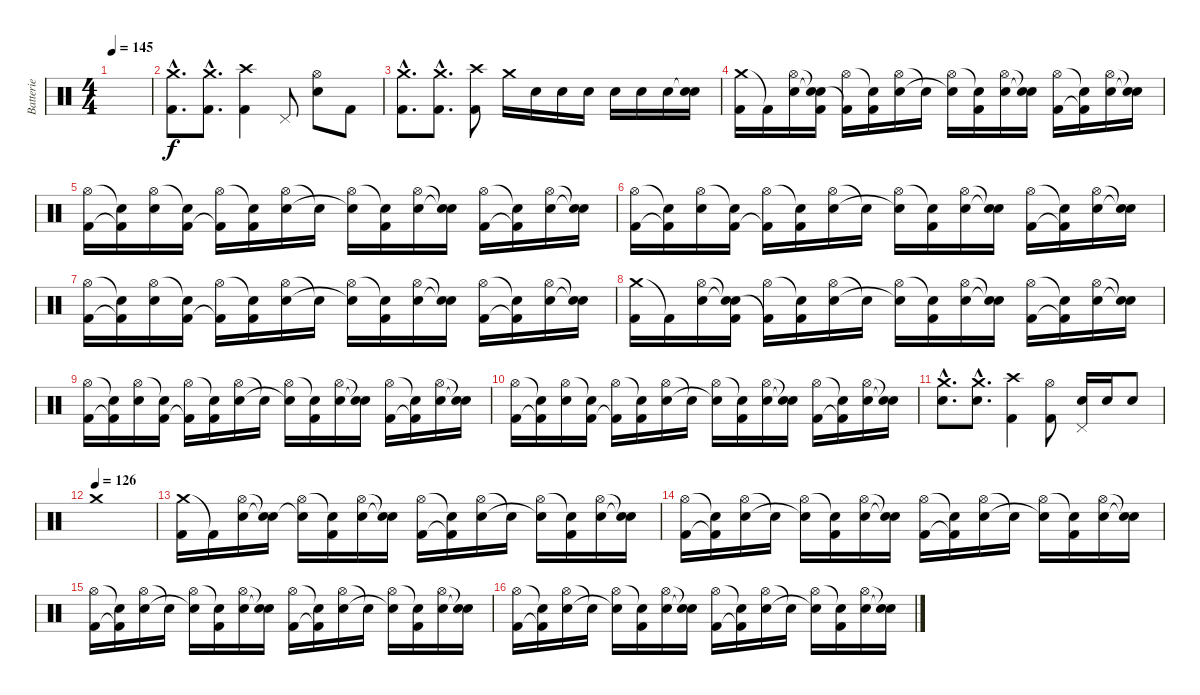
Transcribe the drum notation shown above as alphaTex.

\track ("Batterie" "Batterie") {instrument percussion}
\staff {score}
\articulation defaults
\ts (4 4)
\tempo 145
\clef neutral
\ks c
|
("Crash medium (hit)"{hac} "Kick (hit) 2"{hac}).8{d} ("Crash medium (hit)"{hac} "Kick (hit) 2"{hac}).8{d} ("Crash high (hit)" "Kick (hit) 2").4 "Pedal Hi-Hat (hit)".8 ("Hi-Hat (open)" "Electric Snare (hit)").8 "Kick (hit) 2".8 |
("Crash medium (hit)"{hac} "Kick (hit) 2"{hac}).8{d} ("Crash medium (hit)"{hac} "Kick (hit) 2"{hac}).8{d} ("Crash high (hit)" "Kick (hit) 2").8 "Crash medium (hit)".16 "Electric Snare (hit)".16 "Electric Snare (hit)".16 "Electric Snare (hit)".16 "Electric Snare (hit)".16 "Electric Snare (hit)".16 "Electric Snare (hit)".16 ("Snare (hit)"{t} "Electric Snare (hit)").16 |
("Crash medium (hit)" "Kick (hit) 2").16 "Kick (hit) 2"{t}.16 ("Hi-Hat (open)" "Electric Snare (hit)").16 ("Snare (hit)"{t} "Snare (hit)"{t} "Kick (hit) 2").16 ("Hi-Hat (open)" "Kick (hit) 2"{t}).16 ("Snare (hit)"{t} "Kick (hit) 2").16 ("Hi-Hat (open)" "Electric Snare (hit)").16 "Snare (hit)"{t}.16 ("Hi-Hat (open)" "Electric Snare (hit)"{t}).16 ("Snare (hit)"{t} "Kick (hit) 2").16 ("Hi-Hat (open)" "Electric Snare (hit)").16 ("Snare (hit)"{t} "Electric Snare (hit)"{t}).16 ("Hi-Hat (open)" "Kick (hit) 2").16 ("Snare (hit)"{t} "Kick (hit) 2"{t}).16 ("Hi-Hat (open)" "Electric Snare (hit)").16 ("Snare (hit)"{t} "Electric Snare (hit)"{t}).16 |
("Hi-Hat (open)" "Kick (hit) 2").16 ("Snare (hit)"{t} "Kick (hit) 2"{t}).16 ("Hi-Hat (open)" "Electric Snare (hit)").16 ("Snare (hit)"{t} "Kick (hit) 2").16 ("Hi-Hat (open)" "Kick (hit) 2"{t}).16 ("Snare (hit)"{t} "Kick (hit) 2").16 ("Hi-Hat (open)" "Electric Snare (hit)").16 "Snare (hit)"{t}.16 ("Hi-Hat (open)" "Electric Snare (hit)"{t}).16 ("Snare (hit)"{t} "Kick (hit) 2").16 ("Hi-Hat (open)" "Electric Snare (hit)").16 ("Snare (hit)"{t} "Electric Snare (hit)"{t}).16 ("Hi-Hat (open)" "Kick (hit) 2").16 ("Snare (hit)"{t} "Kick (hit) 2"{t}).16 ("Hi-Hat (open)" "Electric Snare (hit)").16 ("Snare (hit)"{t} "Electric Snare (hit)"{t}).16 |
("Hi-Hat (open)" "Kick (hit) 2").16 ("Snare (hit)"{t} "Kick (hit) 2"{t}).16 ("Hi-Hat (open)" "Electric Snare (hit)").16 ("Snare (hit)"{t} "Kick (hit) 2").16 ("Hi-Hat (open)" "Kick (hit) 2"{t}).16 ("Snare (hit)"{t} "Kick (hit) 2").16 ("Hi-Hat (open)" "Electric Snare (hit)").16 "Snare (hit)"{t}.16 ("Hi-Hat (open)" "Electric Snare (hit)"{t}).16 ("Snare (hit)"{t} "Kick (hit) 2").16 ("Hi-Hat (open)" "Electric Snare (hit)").16 ("Snare (hit)"{t} "Electric Snare (hit)"{t}).16 ("Hi-Hat (open)" "Kick (hit) 2").16 ("Snare (hit)"{t} "Kick (hit) 2"{t}).16 ("Hi-Hat (open)" "Electric Snare (hit)").16 ("Snare (hit)"{t} "Electric Snare (hit)"{t}).16 |
("Hi-Hat (open)" "Kick (hit) 2").16 ("Snare (hit)"{t} "Kick (hit) 2"{t}).16 ("Hi-Hat (open)" "Electric Snare (hit)").16 ("Snare (hit)"{t} "Kick (hit) 2").16 ("Hi-Hat (open)" "Kick (hit) 2"{t}).16 ("Snare (hit)"{t} "Kick (hit) 2").16 ("Hi-Hat (open)" "Electric Snare (hit)").16 "Snare (hit)"{t}.16 ("Hi-Hat (open)" "Electric Snare (hit)"{t}).16 ("Snare (hit)"{t} "Kick (hit) 2").16 ("Hi-Hat (open)" "Electric Snare (hit)").16 ("Snare (hit)"{t} "Electric Snare (hit)"{t}).16 ("Hi-Hat (open)" "Kick (hit) 2").16 ("Snare (hit)"{t} "Kick (hit) 2"{t}).16 ("Hi-Hat (open)" "Electric Snare (hit)").16 ("Snare (hit)"{t} "Electric Snare (hit)"{t}).16 |
("Crash medium (hit)" "Kick (hit) 2").16 "Kick (hit) 2"{t}.16 ("Hi-Hat (open)" "Electric Snare (hit)").16 ("Snare (hit)"{t} "Snare (hit)"{t} "Kick (hit) 2").16 ("Hi-Hat (open)" "Kick (hit) 2"{t}).16 ("Snare (hit)"{t} "Kick (hit) 2").16 ("Hi-Hat (open)" "Electric Snare (hit)").16 "Snare (hit)"{t}.16 ("Hi-Hat (open)" "Electric Snare (hit)"{t}).16 ("Snare (hit)"{t} "Kick (hit) 2").16 ("Hi-Hat (open)" "Electric Snare (hit)").16 ("Snare (hit)"{t} "Electric Snare (hit)"{t}).16 ("Hi-Hat (open)" "Kick (hit) 2").16 ("Snare (hit)"{t} "Kick (hit) 2"{t}).16 ("Hi-Hat (open)" "Electric Snare (hit)").16 ("Snare (hit)"{t} "Electric Snare (hit)"{t}).16 |
("Hi-Hat (open)" "Kick (hit) 2").16 ("Snare (hit)"{t} "Kick (hit) 2"{t}).16 ("Hi-Hat (open)" "Electric Snare (hit)").16 ("Snare (hit)"{t} "Kick (hit) 2").16 ("Hi-Hat (open)" "Kick (hit) 2"{t}).16 ("Snare (hit)"{t} "Kick (hit) 2").16 ("Hi-Hat (open)" "Electric Snare (hit)").16 "Snare (hit)"{t}.16 ("Hi-Hat (open)" "Electric Snare (hit)"{t}).16 ("Snare (hit)"{t} "Kick (hit) 2").16 ("Hi-Hat (open)" "Electric Snare (hit)").16 ("Snare (hit)"{t} "Electric Snare (hit)"{t}).16 ("Hi-Hat (open)" "Kick (hit) 2").16 ("Snare (hit)"{t} "Kick (hit) 2"{t}).16 ("Hi-Hat (open)" "Electric Snare (hit)").16 ("Snare (hit)"{t} "Electric Snare (hit)"{t}).16 |
("Hi-Hat (open)" "Kick (hit) 2").16 ("Snare (hit)"{t} "Kick (hit) 2"{t}).16 ("Hi-Hat (open)" "Electric Snare (hit)").16 ("Snare (hit)"{t} "Kick (hit) 2").16 ("Hi-Hat (open)" "Kick (hit) 2"{t}).16 ("Snare (hit)"{t} "Kick (hit) 2").16 ("Hi-Hat (open)" "Electric Snare (hit)").16 "Snare (hit)"{t}.16 ("Hi-Hat (open)" "Electric Snare (hit)"{t}).16 ("Snare (hit)"{t} "Kick (hit) 2").16 ("Hi-Hat (open)" "Electric Snare (hit)").16 ("Snare (hit)"{t} "Electric Snare (hit)"{t}).16 ("Hi-Hat (open)" "Kick (hit) 2").16 ("Snare (hit)"{t} "Kick (hit) 2"{t}).16 ("Hi-Hat (open)" "Electric Snare (hit)").16 ("Snare (hit)"{t} "Electric Snare (hit)"{t}).16 |
("Crash medium (hit)"{hac} "Electric Snare (hit)"{hac}).8{d} ("Crash medium (hit)"{hac} "Electric Snare (hit)"{hac}).8{d} ("Crash high (hit)" "Kick (hit) 2").4 ("Hi-Hat (open)" "Kick (hit) 2").8 ("Pedal Hi-Hat (hit)" "Electric Snare (hit)").16 "Electric Snare (hit)".16 "Electric Snare (hit)".8 |
\tempo (126)
"Crash medium (hit)".1 |
("Crash medium (hit)" "Kick (hit) 2").16 "Kick (hit) 2"{t}.16 ("Hi-Hat (open)" "Electric Snare (hit)").16 ("Snare (hit)"{t} "Snare (hit)"{t}).16 ("Hi-Hat (open)" "Electric Snare (hit)"{t}).16 ("Snare (hit)"{t} "Kick (hit) 2").16 ("Hi-Hat (open)" "Electric Snare (hit)").16 ("Snare (hit)"{t} "Electric Snare (hit)"{t}).16 ("Hi-Hat (open)" "Kick (hit) 2").16 ("Snare (hit)"{t} "Kick (hit) 2"{t}).16 ("Hi-Hat (open)" "Electric Snare (hit)").16 "Snare (hit)"{t}.16 ("Hi-Hat (open)" "Electric Snare (hit)"{t}).16 ("Snare (hit)"{t} "Kick (hit) 2").16 ("Hi-Hat (open)" "Electric Snare (hit)").16 ("Snare (hit)"{t} "Electric Snare (hit)"{t}).16 |
("Hi-Hat (open)" "Kick (hit) 2").16 ("Snare (hit)"{t} "Kick (hit) 2"{t}).16 ("Hi-Hat (open)" "Electric Snare (hit)").16 "Snare (hit)"{t}.16 ("Hi-Hat (open)" "Electric Snare (hit)"{t}).16 ("Snare (hit)"{t} "Kick (hit) 2").16 ("Hi-Hat (open)" "Electric Snare (hit)").16 ("Snare (hit)"{t} "Electric Snare (hit)"{t}).16 ("Hi-Hat (open)" "Kick (hit) 2").16 ("Snare (hit)"{t} "Kick (hit) 2"{t}).16 ("Hi-Hat (open)" "Electric Snare (hit)").16 "Snare (hit)"{t}.16 ("Hi-Hat (open)" "Electric Snare (hit)"{t}).16 ("Snare (hit)"{t} "Kick (hit) 2").16 ("Hi-Hat (open)" "Electric Snare (hit)").16 ("Snare (hit)"{t} "Electric Snare (hit)"{t}).16 |
("Hi-Hat (open)" "Kick (hit) 2").16 ("Snare (hit)"{t} "Kick (hit) 2"{t}).16 ("Hi-Hat (open)" "Electric Snare (hit)").16 "Snare (hit)"{t}.16 ("Hi-Hat (open)" "Electric Snare (hit)"{t}).16 ("Snare (hit)"{t} "Kick (hit) 2").16 ("Hi-Hat (open)" "Electric Snare (hit)").16 ("Snare (hit)"{t} "Electric Snare (hit)"{t}).16 ("Hi-Hat (open)" "Kick (hit) 2").16 ("Snare (hit)"{t} "Kick (hit) 2"{t}).16 ("Hi-Hat (open)" "Electric Snare (hit)").16 "Snare (hit)"{t}.16 ("Hi-Hat (open)" "Electric Snare (hit)"{t}).16 ("Snare (hit)"{t} "Kick (hit) 2").16 ("Hi-Hat (open)" "Electric Snare (hit)").16 ("Snare (hit)"{t} "Electric Snare (hit)"{t}).16 |
("Hi-Hat (open)" "Kick (hit) 2").16 ("Snare (hit)"{t} "Kick (hit) 2"{t}).16 ("Hi-Hat (open)" "Electric Snare (hit)").16 "Snare (hit)"{t}.16 ("Hi-Hat (open)" "Electric Snare (hit)"{t}).16 ("Snare (hit)"{t} "Kick (hit) 2").16 ("Hi-Hat (open)" "Electric Snare (hit)").16 ("Snare (hit)"{t} "Electric Snare (hit)"{t}).16 ("Hi-Hat (open)" "Kick (hit) 2").16 ("Snare (hit)"{t} "Kick (hit) 2"{t}).16 ("Hi-Hat (open)" "Electric Snare (hit)").16 "Snare (hit)"{t}.16 ("Hi-Hat (open)" "Electric Snare (hit)"{t}).16 ("Snare (hit)"{t} "Kick (hit) 2").16 ("Hi-Hat (open)" "Electric Snare (hit)").16 ("Snare (hit)"{t} "Electric Snare (hit)"{t}).16
